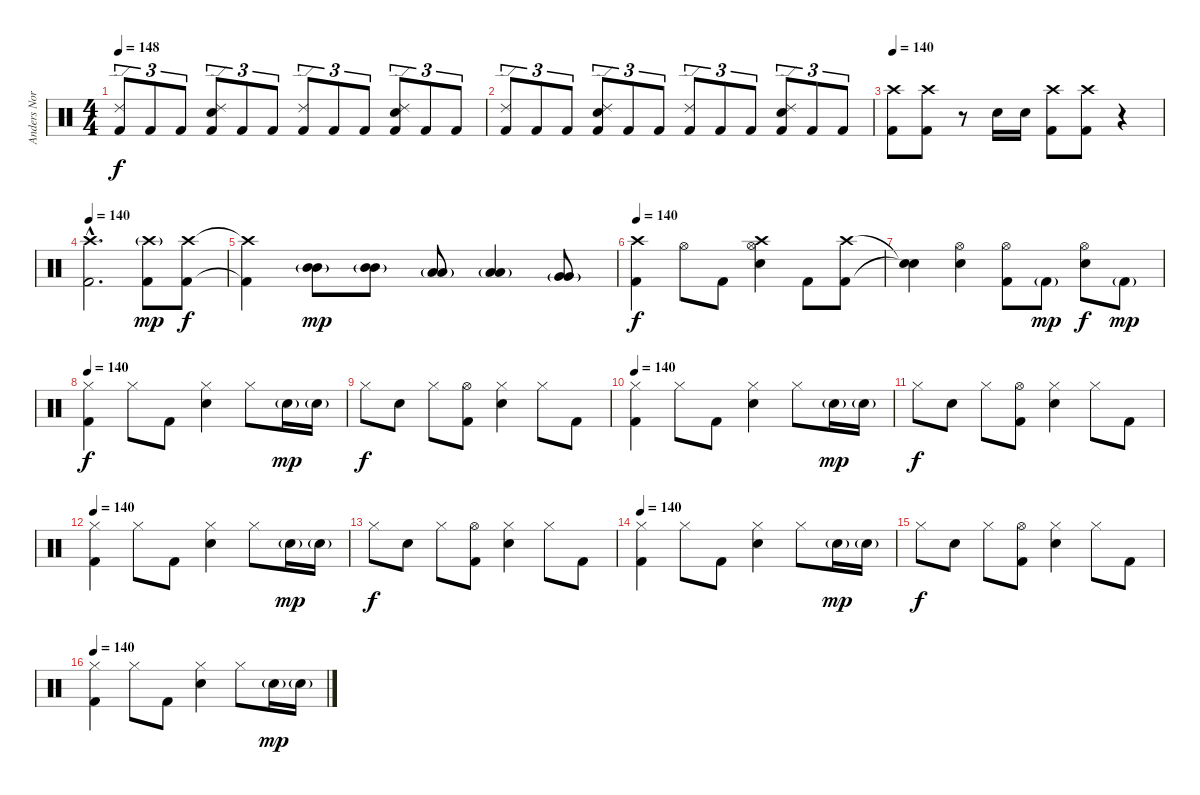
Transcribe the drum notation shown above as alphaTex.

\track ("Anders Nordin" "Anders Nor") {instrument percussion}
\staff {score}
\articulation defaults
\ts (4 4)
\tempo 148
\clef neutral
\ks c
("Kick (hit) 2" "Ride (edge) 2").8{tu (3 2) dy f} "Kick (hit) 2".8{tu (3 2)} "Kick (hit) 2".8{tu (3 2)} ("Kick (hit) 2" "Electric Snare (hit)" "Ride (edge) 2").8{tu (3 2)} "Kick (hit) 2".8{tu (3 2)} "Kick (hit) 2".8{tu (3 2)} ("Kick (hit) 2" "Ride (edge) 2").8{tu (3 2)} "Kick (hit) 2".8{tu (3 2)} "Kick (hit) 2".8{tu (3 2)} ("Kick (hit) 2" "Electric Snare (hit)" "Ride (edge) 2").8{tu (3 2)} "Kick (hit) 2".8{tu (3 2)} "Kick (hit) 2".8{tu (3 2)} |
("Kick (hit) 2" "Ride (edge) 2").8{tu (3 2)} "Kick (hit) 2".8{tu (3 2)} "Kick (hit) 2".8{tu (3 2)} ("Kick (hit) 2" "Electric Snare (hit)" "Ride (edge) 2").8{tu (3 2)} "Kick (hit) 2".8{tu (3 2)} "Kick (hit) 2".8{tu (3 2)} ("Kick (hit) 2" "Ride (edge) 2").8{tu (3 2)} "Kick (hit) 2".8{tu (3 2)} "Kick (hit) 2".8{tu (3 2)} ("Kick (hit) 2" "Electric Snare (hit)" "Ride (edge) 2").8{tu (3 2)} "Kick (hit) 2".8{tu (3 2)} "Kick (hit) 2".8{tu (3 2)} |
\tempo 140
("Kick (hit) 2" "Crash high (hit)").8 ("Kick (hit) 2" "Crash high (hit)").8 r.8 "Electric Snare (hit)".16 "Electric Snare (hit)".16 ("Kick (hit) 2" "Crash high (hit)").8 ("Kick (hit) 2" "Crash high (hit)").8 r.4 |
\tempo 140
("Kick (hit) 2"{hac} "Crash high (hit)"{hac}).2{d} ("Kick (hit) 2" "Crash high (hit)"{g}).8{dy mp} ("Kick (hit) 2" "Crash high (hit)").8{dy f} |
("Kick (hit) 2"{t} "Crash high (hit)"{t}).4 ("Mid Tom (hit)" "Mid Tom (hit)"{g}).8{dy mp} ("Mid Tom (hit)" "Mid Tom (hit)"{g}).8 ("Low Tom (hit)" "Low Tom (hit)"{g}).8 ("Low Tom (hit)" "Low Tom (hit)"{g}).4 ("Very Low Tom (hit)" "Very Low Tom (hit)"{g}).8 |
\tempo 140
("Kick (hit) 2" "Crash high (hit)").4{dy f} "Hi-Hat (open)".8 "Kick (hit) 2".8 ("Electric Snare (hit)" "Hi-Hat (open)" "Crash high (hit)").4 "Kick (hit) 2".8 ("Kick (hit) 2" "Crash high (hit)").8 |
("Snare (hit)"{t} "Snare (hit)"{t}).4 ("Electric Snare (hit)" "Hi-Hat (open)").4 ("Kick (hit) 2" "Hi-Hat (open)").8 "Kick (hit) 2"{g}.8{dy mp} ("Electric Snare (hit)" "Hi-Hat (open)").8{dy f} "Kick (hit) 2"{g}.8{dy mp} |
\tempo 140
("Kick (hit) 2" "Hi-Hat (closed)").4{dy f volume 10} "Hi-Hat (closed)".8 "Kick (hit) 2".8 ("Electric Snare (hit)" "Hi-Hat (closed)").4 "Hi-Hat (closed)".8 "Electric Snare (hit)"{g}.16{dy mp} "Electric Snare (hit)"{g}.16 |
"Hi-Hat (closed)".8{dy f} "Electric Snare (hit)".8 "Hi-Hat (closed)".8 ("Kick (hit) 2" "Hi-Hat (open)").8 ("Electric Snare (hit)" "Hi-Hat (closed)").4 "Hi-Hat (closed)".8 "Kick (hit) 2".8 |
\tempo 140
("Kick (hit) 2" "Hi-Hat (closed)").4{volume 10} "Hi-Hat (closed)".8 "Kick (hit) 2".8 ("Electric Snare (hit)" "Hi-Hat (closed)").4 "Hi-Hat (closed)".8 "Electric Snare (hit)"{g}.16{dy mp} "Electric Snare (hit)"{g}.16 |
"Hi-Hat (closed)".8{dy f} "Electric Snare (hit)".8 "Hi-Hat (closed)".8 ("Kick (hit) 2" "Hi-Hat (open)").8 ("Electric Snare (hit)" "Hi-Hat (closed)").4 "Hi-Hat (closed)".8 "Kick (hit) 2".8 |
\tempo 140
("Kick (hit) 2" "Hi-Hat (closed)").4{volume 10} "Hi-Hat (closed)".8 "Kick (hit) 2".8 ("Electric Snare (hit)" "Hi-Hat (closed)").4 "Hi-Hat (closed)".8 "Electric Snare (hit)"{g}.16{dy mp} "Electric Snare (hit)"{g}.16 |
"Hi-Hat (closed)".8{dy f} "Electric Snare (hit)".8 "Hi-Hat (closed)".8 ("Kick (hit) 2" "Hi-Hat (open)").8 ("Electric Snare (hit)" "Hi-Hat (closed)").4 "Hi-Hat (closed)".8 "Kick (hit) 2".8 |
\tempo 140
("Kick (hit) 2" "Hi-Hat (closed)").4{volume 10} "Hi-Hat (closed)".8 "Kick (hit) 2".8 ("Electric Snare (hit)" "Hi-Hat (closed)").4 "Hi-Hat (closed)".8 "Electric Snare (hit)"{g}.16{dy mp} "Electric Snare (hit)"{g}.16 |
"Hi-Hat (closed)".8{dy f} "Electric Snare (hit)".8 "Hi-Hat (closed)".8 ("Kick (hit) 2" "Hi-Hat (open)").8 ("Electric Snare (hit)" "Hi-Hat (closed)").4 "Hi-Hat (closed)".8 "Kick (hit) 2".8 |
\tempo 140
("Kick (hit) 2" "Hi-Hat (closed)").4{volume 10} "Hi-Hat (closed)".8 "Kick (hit) 2".8 ("Electric Snare (hit)" "Hi-Hat (closed)").4 "Hi-Hat (closed)".8 "Electric Snare (hit)"{g}.16{dy mp} "Electric Snare (hit)"{g}.16
